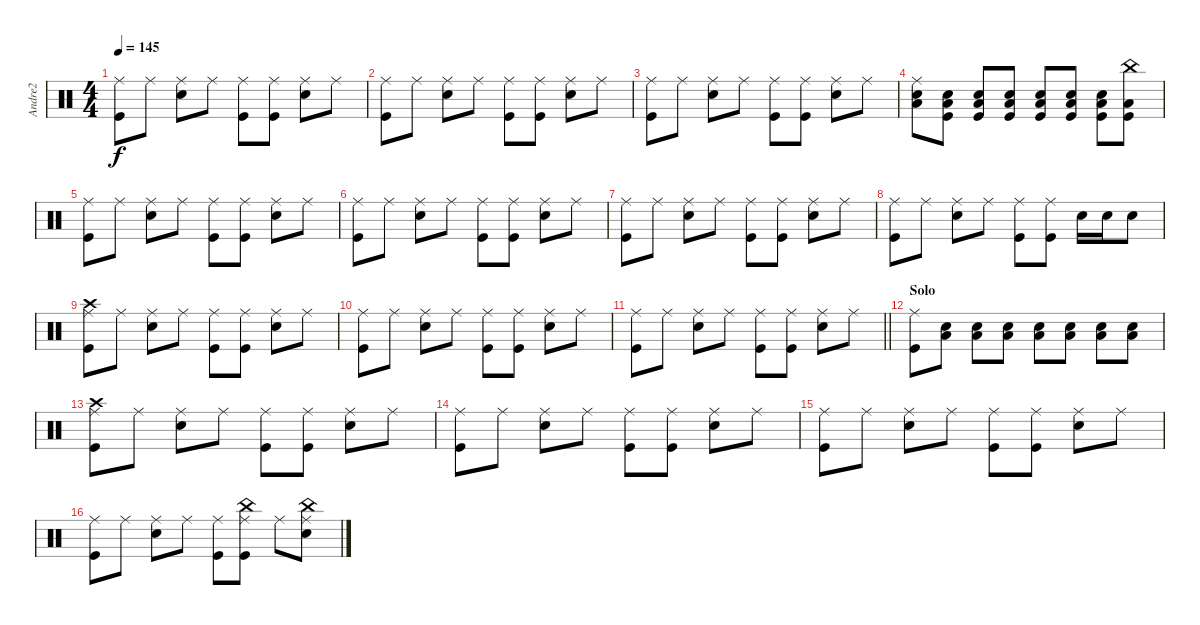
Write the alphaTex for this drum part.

\track ("Andre2" "Andre2") {instrument percussion}
\staff {score}
\articulation defaults
\ts (4 4)
\tempo 145
\clef neutral
\ks c
("Kick (hit)" "Ride (middle)").8{dy f} "Ride (middle)".8 ("Ride (middle)" "Snare (hit) 2").8 "Ride (middle)".8 ("Kick (hit)" "Ride (middle)").8 ("Kick (hit)" "Ride (middle)").8 ("Ride (middle)" "Snare (hit) 2").8 "Ride (middle)".8 |
("Kick (hit)" "Ride (middle)").8 "Ride (middle)".8 ("Ride (middle)" "Snare (hit) 2").8 "Ride (middle)".8 ("Kick (hit)" "Ride (middle)").8 ("Kick (hit)" "Ride (middle)").8 ("Ride (middle)" "Snare (hit) 2").8 "Ride (middle)".8 |
("Kick (hit)" "Ride (middle)").8 "Ride (middle)".8 ("Ride (middle)" "Snare (hit) 2").8 "Ride (middle)".8 ("Kick (hit)" "Ride (middle)").8 ("Kick (hit)" "Ride (middle)").8 ("Ride (middle)" "Snare (hit) 2").8 "Ride (middle)".8 |
("Snare (hit) 2" "Ride (middle)" "Low Tom (hit)").8 ("Snare (hit) 2" "Kick (hit)" "Low Tom (hit)").8 ("Snare (hit) 2" "Kick (hit)" "Low Tom (hit)").8 ("Snare (hit) 2" "Kick (hit)" "Low Tom (hit)").8 ("Snare (hit) 2" "Kick (hit)" "Low Tom (hit)").8 ("Snare (hit) 2" "Kick (hit)" "Low Tom (hit)").8 ("Snare (hit) 2" "Kick (hit)" "Low Tom (hit)").8 ("China (hit)" "Kick (hit)" "Low Tom (hit)").8 |
("Kick (hit)" "Ride (middle)").8 "Ride (middle)".8 ("Ride (middle)" "Snare (hit) 2").8 "Ride (middle)".8 ("Kick (hit)" "Ride (middle)").8 ("Kick (hit)" "Ride (middle)").8 ("Ride (middle)" "Snare (hit) 2").8 "Ride (middle)".8 |
("Kick (hit)" "Ride (middle)").8 "Ride (middle)".8 ("Ride (middle)" "Snare (hit) 2").8 "Ride (middle)".8 ("Kick (hit)" "Ride (middle)").8 ("Kick (hit)" "Ride (middle)").8 ("Ride (middle)" "Snare (hit) 2").8 "Ride (middle)".8 |
("Kick (hit)" "Ride (middle)").8 "Ride (middle)".8 ("Ride (middle)" "Snare (hit) 2").8 "Ride (middle)".8 ("Kick (hit)" "Ride (middle)").8 ("Kick (hit)" "Ride (middle)").8 ("Ride (middle)" "Snare (hit) 2").8 "Ride (middle)".8 |
("Kick (hit)" "Ride (middle)").8 "Ride (middle)".8 ("Ride (middle)" "Snare (hit) 2").8 "Ride (middle)".8 ("Kick (hit)" "Ride (middle)").8 ("Kick (hit)" "Ride (middle)").8 "Snare (hit) 2".16 "Snare (hit) 2".16 "Snare (hit) 2".8 |
("Kick (hit)" "Crash high (hit)" "Ride (middle)").8 "Ride (middle)".8 ("Ride (middle)" "Snare (hit) 2").8 "Ride (middle)".8 ("Kick (hit)" "Ride (middle)").8 ("Kick (hit)" "Ride (middle)").8 ("Ride (middle)" "Snare (hit) 2").8 "Ride (middle)".8 |
("Kick (hit)" "Ride (middle)").8 "Ride (middle)".8 ("Ride (middle)" "Snare (hit) 2").8 "Ride (middle)".8 ("Kick (hit)" "Ride (middle)").8 ("Kick (hit)" "Ride (middle)").8 ("Ride (middle)" "Snare (hit) 2").8 "Ride (middle)".8 |
\barLineRight lightlight
("Kick (hit)" "Ride (middle)").8 "Ride (middle)".8 ("Ride (middle)" "Snare (hit) 2").8 "Ride (middle)".8 ("Kick (hit)" "Ride (middle)").8 ("Kick (hit)" "Ride (middle)").8 ("Ride (middle)" "Snare (hit) 2").8 "Ride (middle)".8 |
\section ("" "Solo")
("Kick (hit)" "Ride (middle)").8 ("Low Tom (hit)" "Snare (hit) 2").8 ("Snare (hit) 2" "Low Tom (hit)").8 ("Low Tom (hit)" "Snare (hit) 2").8 ("Snare (hit) 2" "Low Tom (hit)").8 ("Low Tom (hit)" "Snare (hit) 2").8 ("Snare (hit) 2" "Low Tom (hit)").8 ("Low Tom (hit)" "Snare (hit) 2").8 |
("Kick (hit)" "Crash high (hit)" "Ride (middle)").8 "Ride (middle)".8 ("Ride (middle)" "Snare (hit) 2").8 "Ride (middle)".8 ("Kick (hit)" "Ride (middle)").8 ("Kick (hit)" "Ride (middle)").8 ("Ride (middle)" "Snare (hit) 2").8 "Ride (middle)".8 |
("Kick (hit)" "Ride (middle)").8 "Ride (middle)".8 ("Ride (middle)" "Snare (hit) 2").8 "Ride (middle)".8 ("Kick (hit)" "Ride (middle)").8 ("Kick (hit)" "Ride (middle)").8 ("Ride (middle)" "Snare (hit) 2").8 "Ride (middle)".8 |
("Kick (hit)" "Ride (middle)").8 "Ride (middle)".8 ("Ride (middle)" "Snare (hit) 2").8 "Ride (middle)".8 ("Kick (hit)" "Ride (middle)").8 ("Kick (hit)" "Ride (middle)").8 ("Ride (middle)" "Snare (hit) 2").8 "Ride (middle)".8 |
("Kick (hit)" "Ride (middle)").8 "Ride (middle)".8 ("Ride (middle)" "Snare (hit) 2").8 "Ride (middle)".8 ("Kick (hit)" "Ride (middle)").8 ("China (hit)" "Kick (hit)" "Ride (middle)").8 "Ride (middle)".8 ("China (hit)" "Snare (hit) 2" "Ride (middle)").8
